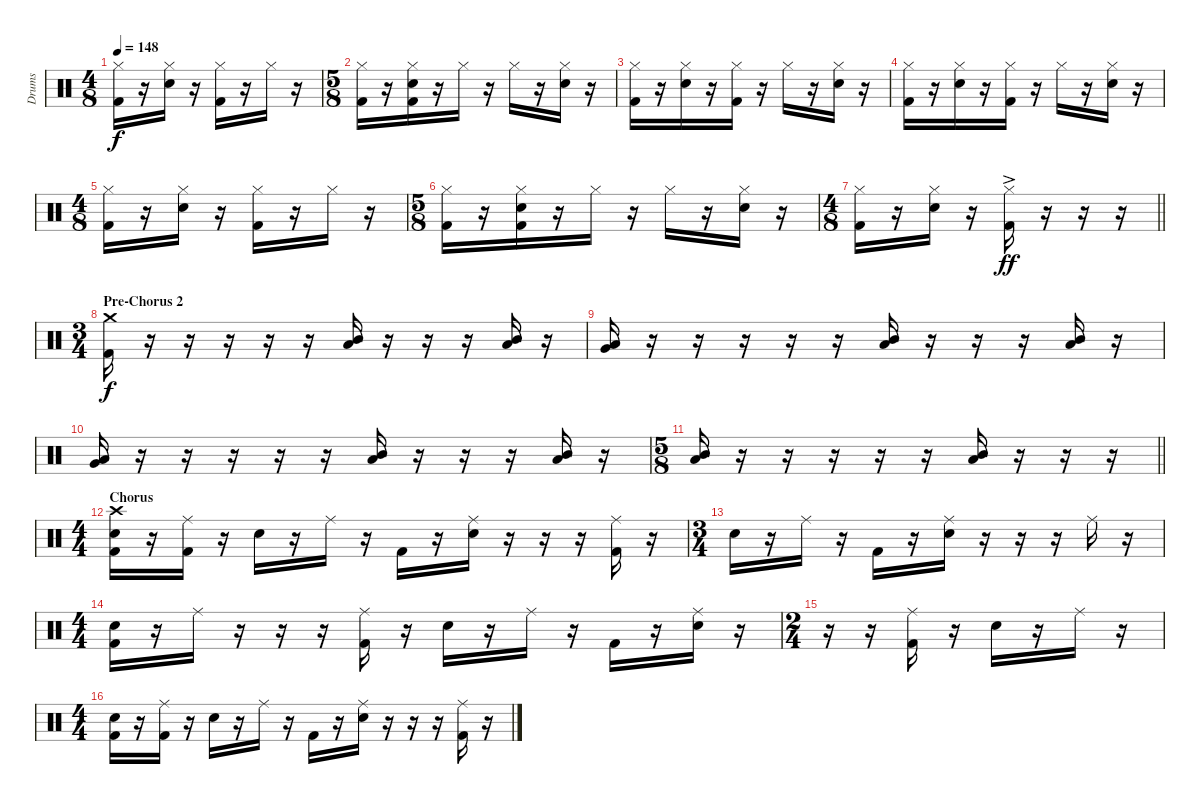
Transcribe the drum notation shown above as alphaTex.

\track ("Drums" "Drums") {instrument percussion}
\staff {score}
\articulation defaults
\ts (4 8)
\tempo 148
\clef neutral
\ks c
("Hi-Hat (closed)" "Kick (hit) 2").16{dy f} r.16 ("Hi-Hat (closed)" "Electric Snare (hit)").16 r.16 ("Hi-Hat (closed)" "Kick (hit) 2").16 r.16 "Hi-Hat (closed)".16 r.16 |
\ts (5 8)
("Hi-Hat (closed)" "Kick (hit) 2").16 r.16 ("Hi-Hat (closed)" "Electric Snare (hit)" "Kick (hit) 2").16 r.16 "Hi-Hat (closed)".16 r.16 "Hi-Hat (closed)".16 r.16 ("Hi-Hat (closed)" "Electric Snare (hit)").16 r.16 |
("Hi-Hat (closed)" "Kick (hit) 2").16 r.16 ("Hi-Hat (closed)" "Electric Snare (hit)").16 r.16 ("Hi-Hat (closed)" "Kick (hit) 2").16 r.16 "Hi-Hat (closed)".16 r.16 ("Hi-Hat (closed)" "Electric Snare (hit)").16 r.16 |
("Hi-Hat (closed)" "Kick (hit) 2").16 r.16 ("Hi-Hat (closed)" "Electric Snare (hit)").16 r.16 ("Hi-Hat (closed)" "Kick (hit) 2").16 r.16 "Hi-Hat (closed)".16 r.16 ("Hi-Hat (closed)" "Electric Snare (hit)").16 r.16 |
\ts (4 8)
("Hi-Hat (closed)" "Kick (hit) 2").16 r.16 ("Hi-Hat (closed)" "Electric Snare (hit)").16 r.16 ("Hi-Hat (closed)" "Kick (hit) 2").16 r.16 "Hi-Hat (closed)".16 r.16 |
\ts (5 8)
("Hi-Hat (closed)" "Kick (hit) 2").16 r.16 ("Hi-Hat (closed)" "Electric Snare (hit)" "Kick (hit) 2").16 r.16 "Hi-Hat (closed)".16 r.16 "Hi-Hat (closed)".16 r.16 ("Hi-Hat (closed)" "Electric Snare (hit)").16 r.16 |
\ts (4 8)
\barLineRight lightlight
("Hi-Hat (closed)" "Kick (hit) 2").16 r.16 ("Hi-Hat (closed)" "Electric Snare (hit)").16 r.16 ("Hi-Hat (closed)"{ac} "Kick (hit) 2").16{dy ff} r.16 r.16 r.16 |
\ts (3 4)
\section ("" "Pre-Chorus 2")
("Crash medium (hit)" "Kick (hit) 2").16{dy f} r.16 r.16 r.16 r.16 r.16 ("Low Tom (hit)" "Mid Tom (hit)").16 r.16 r.16 r.16 ("Low Tom (hit)" "Mid Tom (hit)").16 r.16 |
("Low Tom (hit)" "Very Low Tom (hit)").16 r.16 r.16 r.16 r.16 r.16 ("Mid Tom (hit)" "Low Tom (hit)").16 r.16 r.16 r.16 ("Mid Tom (hit)" "Low Tom (hit)").16 r.16 |
("Low Tom (hit)" "Very Low Tom (hit)").16 r.16 r.16 r.16 r.16 r.16 ("Mid Tom (hit)" "Low Tom (hit)").16 r.16 r.16 r.16 ("Mid Tom (hit)" "Low Tom (hit)").16 r.16 |
\ts (5 8)
\barLineRight lightlight
("Mid Tom (hit)" "Low Tom (hit)").16 r.16 r.16 r.16 r.16 r.16 ("Mid Tom (hit)" "Low Tom (hit)").16 r.16 r.16 r.16 |
\ts (4 4)
\section ("" "Chorus")
("Crash high (hit)" "Electric Snare (hit)" "Kick (hit) 2").16 r.16 ("Ride (middle)" "Kick (hit) 2").16 r.16 "Electric Snare (hit)".16 r.16 "Ride (middle)".16 r.16 "Kick (hit) 2".16 r.16 ("Ride (middle)" "Electric Snare (hit)").16 r.16 r.16 r.16 ("Ride (middle)" "Kick (hit) 2").16 r.16 |
\ts (3 4)
"Electric Snare (hit)".16 r.16 "Ride (middle)".16 r.16 "Kick (hit) 2".16 r.16 ("Ride (middle)" "Electric Snare (hit)").16 r.16 r.16 r.16 "Ride (middle)".16 r.16 |
\ts (4 4)
("Electric Snare (hit)" "Kick (hit) 2").16 r.16 "Ride (middle)".16 r.16 r.16 r.16 ("Ride (middle)" "Kick (hit) 2").16 r.16 "Electric Snare (hit)".16 r.16 "Ride (middle)".16 r.16 "Kick (hit) 2".16 r.16 ("Ride (middle)" "Electric Snare (hit)").16 r.16 |
\ts (2 4)
r.16 r.16 ("Ride (middle)" "Kick (hit) 2").16 r.16 "Electric Snare (hit)".16 r.16 "Ride (middle)".16 r.16 |
\ts (4 4)
("Electric Snare (hit)" "Kick (hit) 2").16 r.16 ("Ride (middle)" "Kick (hit) 2").16 r.16 "Electric Snare (hit)".16 r.16 "Ride (middle)".16 r.16 "Kick (hit) 2".16 r.16 ("Ride (middle)" "Electric Snare (hit)").16 r.16 r.16 r.16 ("Ride (middle)" "Kick (hit) 2").16 r.16
